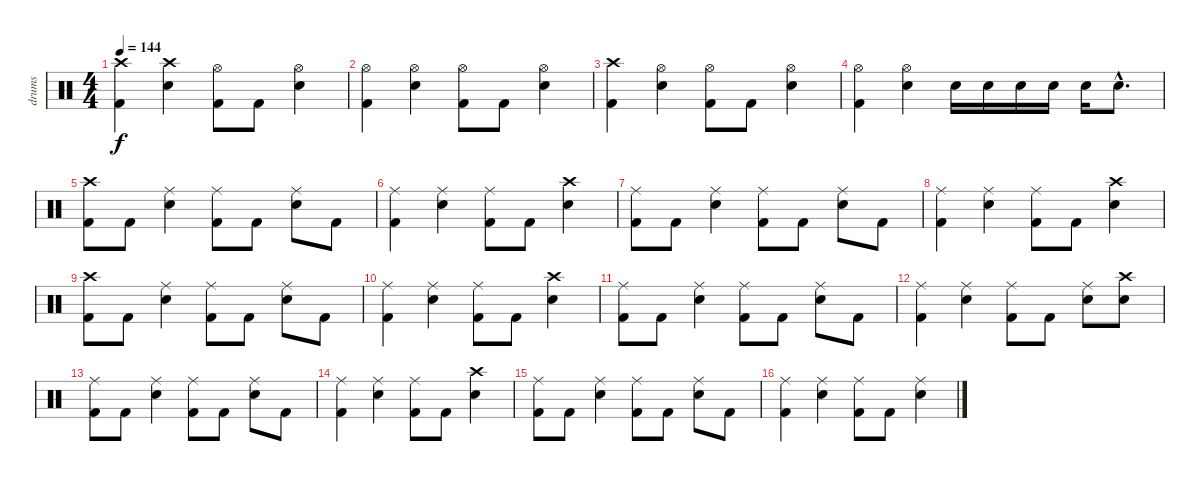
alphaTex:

\track ("drums" "drums") {instrument percussion}
\staff {score}
\articulation defaults
\ts (4 4)
\tempo 144
\clef neutral
\ks c
("Crash high (hit)" "Kick (hit) 2").4{dy f} ("Crash high (hit)" "Electric Snare (hit)").4 ("Hi-Hat (open)" "Kick (hit) 2").8 "Kick (hit) 2".8 ("Hi-Hat (open)" "Electric Snare (hit)").4 |
("Hi-Hat (open)" "Kick (hit) 2").4 ("Hi-Hat (open)" "Electric Snare (hit)").4 ("Hi-Hat (open)" "Kick (hit) 2").8 "Kick (hit) 2".8 ("Hi-Hat (open)" "Electric Snare (hit)").4 |
("Crash high (hit)" "Kick (hit) 2").4 ("Hi-Hat (open)" "Electric Snare (hit)").4 ("Hi-Hat (open)" "Kick (hit) 2").8 "Kick (hit) 2".8 ("Hi-Hat (open)" "Electric Snare (hit)").4 |
("Hi-Hat (open)" "Kick (hit) 2").4 ("Hi-Hat (open)" "Electric Snare (hit)").4 "Electric Snare (hit)".16 "Electric Snare (hit)".16 "Electric Snare (hit)".16 "Electric Snare (hit)".16 "Electric Snare (hit)".16 "Electric Snare (hit)"{hac}.8{d} |
("Crash high (hit)" "Kick (hit) 2").8 "Kick (hit) 2".8 ("Ride (middle)" "Electric Snare (hit)").4 ("Ride (middle)" "Kick (hit) 2").8 "Kick (hit) 2".8 ("Ride (middle)" "Electric Snare (hit)").8 "Kick (hit) 2".8 |
("Ride (middle)" "Kick (hit) 2").4 ("Ride (middle)" "Electric Snare (hit)").4 ("Ride (middle)" "Kick (hit) 2").8 "Kick (hit) 2".8 ("Crash high (hit)" "Electric Snare (hit)").4 |
("Ride (middle)" "Kick (hit) 2").8 "Kick (hit) 2".8 ("Ride (middle)" "Electric Snare (hit)").4 ("Ride (middle)" "Kick (hit) 2").8 "Kick (hit) 2".8 ("Ride (middle)" "Electric Snare (hit)").8 "Kick (hit) 2".8 |
("Ride (middle)" "Kick (hit) 2").4 ("Ride (middle)" "Electric Snare (hit)").4 ("Ride (middle)" "Kick (hit) 2").8 "Kick (hit) 2".8 ("Crash high (hit)" "Electric Snare (hit)").4 |
("Crash high (hit)" "Kick (hit) 2").8 "Kick (hit) 2".8 ("Ride (middle)" "Electric Snare (hit)").4 ("Ride (middle)" "Kick (hit) 2").8 "Kick (hit) 2".8 ("Ride (middle)" "Electric Snare (hit)").8 "Kick (hit) 2".8 |
("Ride (middle)" "Kick (hit) 2").4 ("Ride (middle)" "Electric Snare (hit)").4 ("Ride (middle)" "Kick (hit) 2").8 "Kick (hit) 2".8 ("Crash high (hit)" "Electric Snare (hit)").4 |
("Ride (middle)" "Kick (hit) 2").8 "Kick (hit) 2".8 ("Ride (middle)" "Electric Snare (hit)").4 ("Ride (middle)" "Kick (hit) 2").8 "Kick (hit) 2".8 ("Ride (middle)" "Electric Snare (hit)").8 "Kick (hit) 2".8 |
("Ride (middle)" "Kick (hit) 2").4 ("Ride (middle)" "Electric Snare (hit)").4 ("Ride (middle)" "Kick (hit) 2").8 "Kick (hit) 2".8 ("Ride (middle)" "Electric Snare (hit)").8 ("Crash high (hit)" "Electric Snare (hit)").8 |
("Ride (middle)" "Kick (hit) 2").8 "Kick (hit) 2".8 ("Ride (middle)" "Electric Snare (hit)").4 ("Ride (middle)" "Kick (hit) 2").8 "Kick (hit) 2".8 ("Ride (middle)" "Electric Snare (hit)").8 "Kick (hit) 2".8 |
("Ride (middle)" "Kick (hit) 2").4 ("Ride (middle)" "Electric Snare (hit)").4 ("Ride (middle)" "Kick (hit) 2").8 "Kick (hit) 2".8 ("Crash high (hit)" "Electric Snare (hit)").4 |
("Ride (middle)" "Kick (hit) 2").8 "Kick (hit) 2".8 ("Ride (middle)" "Electric Snare (hit)").4 ("Ride (middle)" "Kick (hit) 2").8 "Kick (hit) 2".8 ("Ride (middle)" "Electric Snare (hit)").8 "Kick (hit) 2".8 |
("Ride (middle)" "Kick (hit) 2").4 ("Ride (middle)" "Electric Snare (hit)").4 ("Ride (middle)" "Kick (hit) 2").8 "Kick (hit) 2".8 ("Ride (middle)" "Electric Snare (hit)").4
